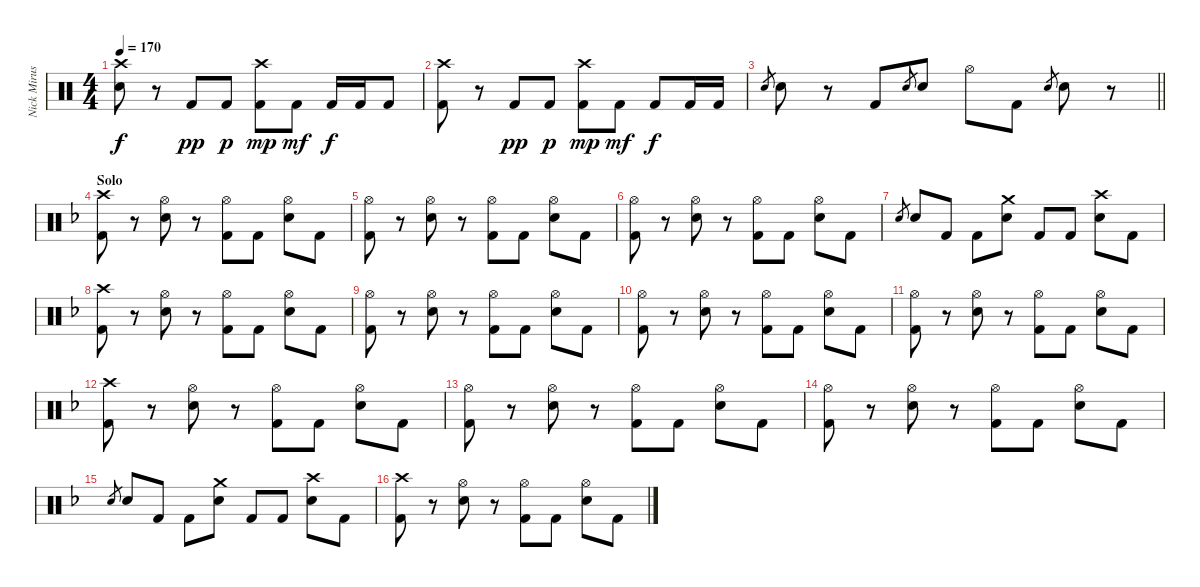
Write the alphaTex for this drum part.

\track ("Nick Mirusso - Drums" "Nick Mirus") {instrument percussion}
\staff {score}
\articulation defaults
\ts (4 4)
\tempo 170
\clef neutral
\ks c
("Crash high (hit)" "Electric Snare (hit)").8{dy f} r.8 "Kick (hit) 2".8{dy pp} "Kick (hit) 2".8{dy p} ("Crash high (hit)" "Kick (hit) 2").8{dy mp} "Kick (hit) 2".8{dy mf} "Kick (hit) 2".16{dy f} "Kick (hit) 2".16 "Kick (hit) 2".8 |
("Crash high (hit)" "Kick (hit) 2").8 r.8 "Kick (hit) 2".8{dy pp} "Kick (hit) 2".8{dy p} ("Crash high (hit)" "Kick (hit) 2").8{dy mp} "Kick (hit) 2".8{dy mf} "Kick (hit) 2".8{dy f} "Kick (hit) 2".16 "Kick (hit) 2".16 |
\barLineRight lightlight "Electric Snare (hit)".8{gr} "Electric Snare (hit)".8
r.8 "Kick (hit) 2".8 "Electric Snare (hit)".8{gr} "Electric Snare (hit)".8 "Hi-Hat (open)".8 "Kick (hit) 2".8 "Electric Snare (hit)".8{gr} "Electric Snare (hit)".8 r.8 |
\section ("" "Solo")
\ks f
("Crash high (hit)" "Kick (hit) 2").8 r.8 ("Hi-Hat (open)" "Electric Snare (hit)").8 r.8 ("Hi-Hat (open)" "Kick (hit) 2").8 "Kick (hit) 2".8 ("Hi-Hat (open)" "Electric Snare (hit)").8 "Kick (hit) 2".8 |
("Hi-Hat (open)" "Kick (hit) 2").8 r.8 ("Hi-Hat (open)" "Electric Snare (hit)").8 r.8 ("Hi-Hat (open)" "Kick (hit) 2").8 "Kick (hit) 2".8 ("Hi-Hat (open)" "Electric Snare (hit)").8 "Kick (hit) 2".8 |
("Hi-Hat (open)" "Kick (hit) 2").8 r.8 ("Hi-Hat (open)" "Electric Snare (hit)").8 r.8 ("Hi-Hat (open)" "Kick (hit) 2").8 "Kick (hit) 2".8 ("Hi-Hat (open)" "Electric Snare (hit)").8 "Kick (hit) 2".8 |
"Electric Snare (hit)".8{gr} "Electric Snare (hit)".8 "Kick (hit) 2".8 "Kick (hit) 2".8 ("Crash medium (hit)" "Electric Snare (hit)").8 "Kick (hit) 2".8 "Kick (hit) 2".8 ("Crash high (hit)" "Electric Snare (hit)").8 "Kick (hit) 2".8 |
("Crash high (hit)" "Kick (hit) 2").8 r.8 ("Hi-Hat (open)" "Electric Snare (hit)").8 r.8 ("Hi-Hat (open)" "Kick (hit) 2").8 "Kick (hit) 2".8 ("Hi-Hat (open)" "Electric Snare (hit)").8 "Kick (hit) 2".8 |
("Hi-Hat (open)" "Kick (hit) 2").8 r.8 ("Hi-Hat (open)" "Electric Snare (hit)").8 r.8 ("Hi-Hat (open)" "Kick (hit) 2").8 "Kick (hit) 2".8 ("Hi-Hat (open)" "Electric Snare (hit)").8 "Kick (hit) 2".8 |
("Hi-Hat (open)" "Kick (hit) 2").8 r.8 ("Hi-Hat (open)" "Electric Snare (hit)").8 r.8 ("Hi-Hat (open)" "Kick (hit) 2").8 "Kick (hit) 2".8 ("Hi-Hat (open)" "Electric Snare (hit)").8 "Kick (hit) 2".8 |
("Hi-Hat (open)" "Kick (hit) 2").8 r.8 ("Hi-Hat (open)" "Electric Snare (hit)").8 r.8 ("Hi-Hat (open)" "Kick (hit) 2").8 "Kick (hit) 2".8 ("Hi-Hat (open)" "Electric Snare (hit)").8 "Kick (hit) 2".8 |
("Crash high (hit)" "Kick (hit) 2").8 r.8 ("Hi-Hat (open)" "Electric Snare (hit)").8 r.8 ("Hi-Hat (open)" "Kick (hit) 2").8 "Kick (hit) 2".8 ("Hi-Hat (open)" "Electric Snare (hit)").8 "Kick (hit) 2".8 |
("Hi-Hat (open)" "Kick (hit) 2").8 r.8 ("Hi-Hat (open)" "Electric Snare (hit)").8 r.8 ("Hi-Hat (open)" "Kick (hit) 2").8 "Kick (hit) 2".8 ("Hi-Hat (open)" "Electric Snare (hit)").8 "Kick (hit) 2".8 |
("Hi-Hat (open)" "Kick (hit) 2").8 r.8 ("Hi-Hat (open)" "Electric Snare (hit)").8 r.8 ("Hi-Hat (open)" "Kick (hit) 2").8 "Kick (hit) 2".8 ("Hi-Hat (open)" "Electric Snare (hit)").8 "Kick (hit) 2".8 |
"Electric Snare (hit)".8{gr} "Electric Snare (hit)".8 "Kick (hit) 2".8 "Kick (hit) 2".8 ("Crash medium (hit)" "Electric Snare (hit)").8 "Kick (hit) 2".8 "Kick (hit) 2".8 ("Crash high (hit)" "Electric Snare (hit)").8 "Kick (hit) 2".8 |
("Crash high (hit)" "Kick (hit) 2").8 r.8 ("Hi-Hat (open)" "Electric Snare (hit)").8 r.8 ("Hi-Hat (open)" "Kick (hit) 2").8 "Kick (hit) 2".8 ("Hi-Hat (open)" "Electric Snare (hit)").8 "Kick (hit) 2".8
